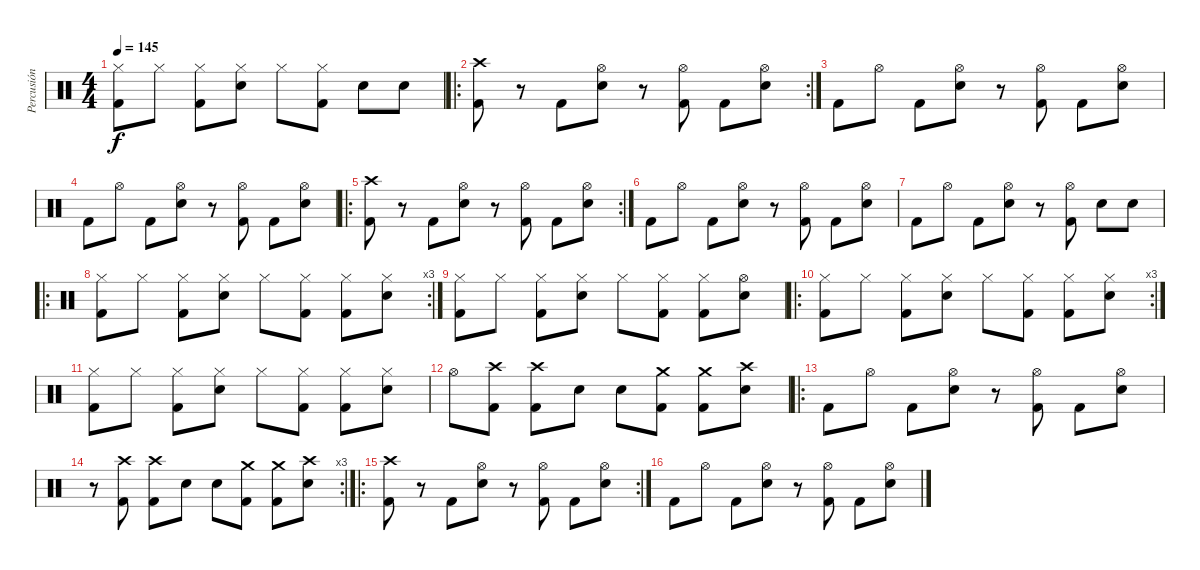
\track ("Percusión" "Percusión") {instrument percussion}
\staff {score}
\articulation defaults
\ts (4 4)
\tempo 145
\clef neutral
\ks c
("Hi-Hat (closed)" "Kick (hit) 2").8{dy f} "Hi-Hat (closed)".8 ("Hi-Hat (closed)" "Kick (hit) 2").8 ("Hi-Hat (closed)" "Electric Snare (hit)").8 "Hi-Hat (closed)".8 ("Hi-Hat (closed)" "Kick (hit) 2").8 "Electric Snare (hit)".8 "Electric Snare (hit)".8 |
\ro
\rc 2
("Crash high (hit)" "Kick (hit) 2").8 r.8 "Kick (hit) 2".8 ("Hi-Hat (open)" "Electric Snare (hit)").8 r.8 ("Hi-Hat (open)" "Kick (hit) 2").8 "Kick (hit) 2".8 ("Hi-Hat (open)" "Electric Snare (hit)").8 |
"Kick (hit) 2".8 "Hi-Hat (open)".8 "Kick (hit) 2".8 ("Hi-Hat (open)" "Electric Snare (hit)").8 r.8 ("Hi-Hat (open)" "Kick (hit) 2").8 "Kick (hit) 2".8 ("Hi-Hat (open)" "Electric Snare (hit)").8 |
"Kick (hit) 2".8 "Hi-Hat (open)".8 "Kick (hit) 2".8 ("Hi-Hat (open)" "Electric Snare (hit)").8 r.8 ("Hi-Hat (open)" "Kick (hit) 2").8 "Kick (hit) 2".8 ("Hi-Hat (open)" "Electric Snare (hit)").8 |
\ro
\rc 2
("Crash high (hit)" "Kick (hit) 2").8 r.8 "Kick (hit) 2".8 ("Hi-Hat (open)" "Electric Snare (hit)").8 r.8 ("Hi-Hat (open)" "Kick (hit) 2").8 "Kick (hit) 2".8 ("Hi-Hat (open)" "Electric Snare (hit)").8 |
"Kick (hit) 2".8 "Hi-Hat (open)".8 "Kick (hit) 2".8 ("Hi-Hat (open)" "Electric Snare (hit)").8 r.8 ("Hi-Hat (open)" "Kick (hit) 2").8 "Kick (hit) 2".8 ("Hi-Hat (open)" "Electric Snare (hit)").8 |
"Kick (hit) 2".8 "Hi-Hat (open)".8 "Kick (hit) 2".8 ("Hi-Hat (open)" "Electric Snare (hit)").8 r.8 ("Hi-Hat (open)" "Kick (hit) 2").8 "Electric Snare (hit)".8 "Electric Snare (hit)".8 |
\ro
\rc 3
("Hi-Hat (closed)" "Kick (hit) 2").8 "Hi-Hat (closed)".8 ("Hi-Hat (closed)" "Kick (hit) 2").8 ("Hi-Hat (closed)" "Electric Snare (hit)").8 "Hi-Hat (closed)".8 ("Hi-Hat (closed)" "Kick (hit) 2").8 ("Hi-Hat (closed)" "Kick (hit) 2").8 ("Hi-Hat (closed)" "Electric Snare (hit)").8 |
("Hi-Hat (closed)" "Kick (hit) 2").8 "Hi-Hat (closed)".8 ("Hi-Hat (closed)" "Kick (hit) 2").8 ("Hi-Hat (closed)" "Electric Snare (hit)").8 "Hi-Hat (closed)".8 ("Hi-Hat (closed)" "Kick (hit) 2").8 ("Hi-Hat (closed)" "Kick (hit) 2").8 ("Hi-Hat (open)" "Electric Snare (hit)").8 |
\ro
\rc 3
("Hi-Hat (closed)" "Kick (hit) 2").8 "Hi-Hat (closed)".8 ("Hi-Hat (closed)" "Kick (hit) 2").8 ("Hi-Hat (closed)" "Electric Snare (hit)").8 "Hi-Hat (closed)".8 ("Hi-Hat (closed)" "Kick (hit) 2").8 ("Hi-Hat (closed)" "Kick (hit) 2").8 ("Hi-Hat (closed)" "Electric Snare (hit)").8 |
("Hi-Hat (closed)" "Kick (hit) 2").8 "Hi-Hat (closed)".8 ("Hi-Hat (closed)" "Kick (hit) 2").8 ("Hi-Hat (closed)" "Electric Snare (hit)").8 "Hi-Hat (closed)".8 ("Hi-Hat (closed)" "Kick (hit) 2").8 ("Hi-Hat (closed)" "Kick (hit) 2").8 ("Hi-Hat (closed)" "Electric Snare (hit)").8 |
"Hi-Hat (open)".8 ("Crash high (hit)" "Kick (hit) 2").8 ("Crash high (hit)" "Kick (hit) 2").8 "Electric Snare (hit)".8 "Electric Snare (hit)".8 ("Crash medium (hit)" "Kick (hit) 2").8 ("Crash medium (hit)" "Kick (hit) 2").8 ("Crash high (hit)" "Electric Snare (hit)").8 |
\ro "Kick (hit) 2".8 "Hi-Hat (open)".8 "Kick (hit) 2".8
("Hi-Hat (open)" "Electric Snare (hit)").8 r.8 ("Hi-Hat (open)" "Kick (hit) 2").8 "Kick (hit) 2".8 ("Hi-Hat (open)" "Electric Snare (hit)").8 |
\rc 3
r.8 ("Crash high (hit)" "Kick (hit) 2").8 ("Crash high (hit)" "Kick (hit) 2").8 "Electric Snare (hit)".8 "Electric Snare (hit)".8 ("Crash medium (hit)" "Kick (hit) 2").8 ("Crash medium (hit)" "Kick (hit) 2").8 ("Crash high (hit)" "Electric Snare (hit)").8 |
\ro
\rc 2
("Crash high (hit)" "Kick (hit) 2").8 r.8 "Kick (hit) 2".8 ("Hi-Hat (open)" "Electric Snare (hit)").8 r.8 ("Hi-Hat (open)" "Kick (hit) 2").8 "Kick (hit) 2".8 ("Hi-Hat (open)" "Electric Snare (hit)").8 |
"Kick (hit) 2".8 "Hi-Hat (open)".8 "Kick (hit) 2".8 ("Hi-Hat (open)" "Electric Snare (hit)").8 r.8 ("Hi-Hat (open)" "Kick (hit) 2").8 "Kick (hit) 2".8 ("Hi-Hat (open)" "Electric Snare (hit)").8
